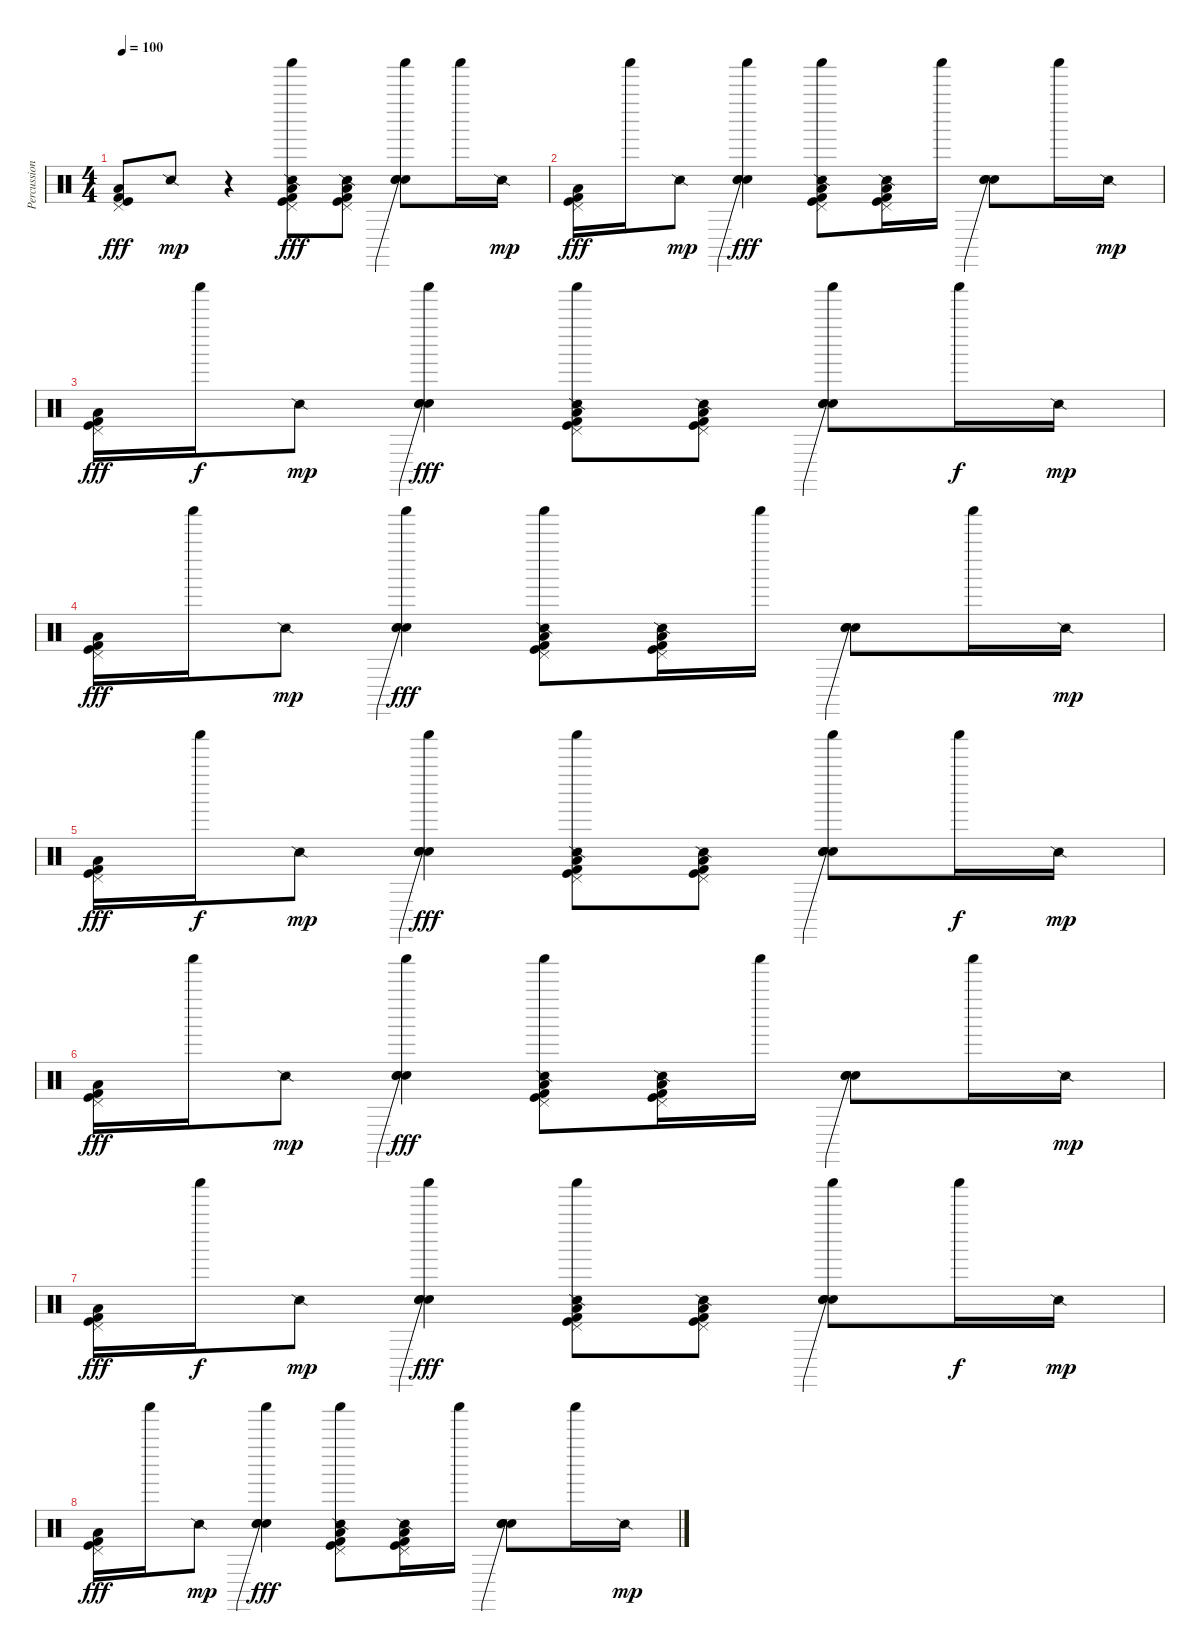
\track ("Percussion" "Percussion") {instrument percussion}
\staff {score}
\articulation defaults
\ts (4 4)
\tempo 100
\clef neutral
\ks c
("Pedal Hi-Hat (hit)" "Low Floor Tom (hit)" "Kick (hit) 2" "Kick (hit)").8{dy fff} "Snare (side stick) 2".8{dy mp} r.4 ("Snare (side stick) 2" "Pedal Hi-Hat (hit)" "Shaker (hit)" "Low Floor Tom (hit)" "Kick (hit) 2" "Kick (hit)").8{dy fff} ("Snare (side stick) 2" "Pedal Hi-Hat (hit)" "Low Floor Tom (hit)" "Kick (hit) 2" "Kick (hit)").8 ("Shaker (hit)" "Electric Snare (hit)" "Hand Clap (hit)" "Hand Clap (hit)"{be (prebend 0 6 60 6)}).8 "Shaker (hit)".16 "Snare (side stick) 2".16{dy mp} |
("Pedal Hi-Hat (hit)" "Low Floor Tom (hit)" "Kick (hit) 2" "Kick (hit)").16{dy fff} "Shaker (hit)".16 "Snare (side stick) 2".8{dy mp} ("Shaker (hit)" "Electric Snare (hit)" "Hand Clap (hit)" "Hand Clap (hit)"{be (prebend 0 6 60 6)}).4{dy fff} ("Snare (side stick) 2" "Pedal Hi-Hat (hit)" "Shaker (hit)" "Low Floor Tom (hit)" "Kick (hit) 2" "Kick (hit)").8 ("Snare (side stick) 2" "Pedal Hi-Hat (hit)" "Low Floor Tom (hit)" "Kick (hit) 2" "Kick (hit)").16 "Shaker (hit)".16 ("Electric Snare (hit)" "Hand Clap (hit)" "Hand Clap (hit)"{be (prebend 0 6 60 6)}).8 "Shaker (hit)".16 "Snare (side stick) 2".16{dy mp} |
("Pedal Hi-Hat (hit)" "Low Floor Tom (hit)" "Kick (hit) 2" "Kick (hit)").16{dy fff} "Shaker (hit)".16{dy f} "Snare (side stick) 2".8{dy mp} ("Shaker (hit)" "Electric Snare (hit)" "Hand Clap (hit)" "Hand Clap (hit)"{be (prebend 0 6 60 6)}).4{dy fff} ("Snare (side stick) 2" "Pedal Hi-Hat (hit)" "Shaker (hit)" "Low Floor Tom (hit)" "Kick (hit) 2" "Kick (hit)").8 ("Snare (side stick) 2" "Pedal Hi-Hat (hit)" "Low Floor Tom (hit)" "Kick (hit) 2" "Kick (hit)").8 ("Shaker (hit)" "Electric Snare (hit)" "Hand Clap (hit)" "Hand Clap (hit)"{be (prebend 0 6 60 6)}).8 "Shaker (hit)".16{dy f} "Snare (side stick) 2".16{dy mp} |
("Pedal Hi-Hat (hit)" "Low Floor Tom (hit)" "Kick (hit) 2" "Kick (hit)").16{dy fff} "Shaker (hit)".16 "Snare (side stick) 2".8{dy mp} ("Shaker (hit)" "Electric Snare (hit)" "Hand Clap (hit)" "Hand Clap (hit)"{be (prebend 0 6 60 6)}).4{dy fff} ("Snare (side stick) 2" "Pedal Hi-Hat (hit)" "Shaker (hit)" "Low Floor Tom (hit)" "Kick (hit) 2" "Kick (hit)").8 ("Snare (side stick) 2" "Pedal Hi-Hat (hit)" "Low Floor Tom (hit)" "Kick (hit) 2" "Kick (hit)").16 "Shaker (hit)".16 ("Electric Snare (hit)" "Hand Clap (hit)" "Hand Clap (hit)"{be (prebend 0 6 60 6)}).8 "Shaker (hit)".16 "Snare (side stick) 2".16{dy mp} |
("Pedal Hi-Hat (hit)" "Low Floor Tom (hit)" "Kick (hit) 2" "Kick (hit)").16{dy fff} "Shaker (hit)".16{dy f} "Snare (side stick) 2".8{dy mp} ("Shaker (hit)" "Electric Snare (hit)" "Hand Clap (hit)" "Hand Clap (hit)"{be (prebend 0 6 60 6)}).4{dy fff} ("Snare (side stick) 2" "Pedal Hi-Hat (hit)" "Shaker (hit)" "Low Floor Tom (hit)" "Kick (hit) 2" "Kick (hit)").8 ("Snare (side stick) 2" "Pedal Hi-Hat (hit)" "Low Floor Tom (hit)" "Kick (hit) 2" "Kick (hit)").8 ("Shaker (hit)" "Electric Snare (hit)" "Hand Clap (hit)" "Hand Clap (hit)"{be (prebend 0 6 60 6)}).8 "Shaker (hit)".16{dy f} "Snare (side stick) 2".16{dy mp} |
("Pedal Hi-Hat (hit)" "Low Floor Tom (hit)" "Kick (hit) 2" "Kick (hit)").16{dy fff} "Shaker (hit)".16 "Snare (side stick) 2".8{dy mp} ("Shaker (hit)" "Electric Snare (hit)" "Hand Clap (hit)" "Hand Clap (hit)"{be (prebend 0 6 60 6)}).4{dy fff} ("Snare (side stick) 2" "Pedal Hi-Hat (hit)" "Shaker (hit)" "Low Floor Tom (hit)" "Kick (hit) 2" "Kick (hit)").8 ("Snare (side stick) 2" "Pedal Hi-Hat (hit)" "Low Floor Tom (hit)" "Kick (hit) 2" "Kick (hit)").16 "Shaker (hit)".16 ("Electric Snare (hit)" "Hand Clap (hit)" "Hand Clap (hit)"{be (prebend 0 6 60 6)}).8 "Shaker (hit)".16 "Snare (side stick) 2".16{dy mp} |
("Pedal Hi-Hat (hit)" "Low Floor Tom (hit)" "Kick (hit) 2" "Kick (hit)").16{dy fff} "Shaker (hit)".16{dy f} "Snare (side stick) 2".8{dy mp} ("Shaker (hit)" "Electric Snare (hit)" "Hand Clap (hit)" "Hand Clap (hit)"{be (prebend 0 6 60 6)}).4{dy fff} ("Snare (side stick) 2" "Pedal Hi-Hat (hit)" "Shaker (hit)" "Low Floor Tom (hit)" "Kick (hit) 2" "Kick (hit)").8 ("Snare (side stick) 2" "Pedal Hi-Hat (hit)" "Low Floor Tom (hit)" "Kick (hit) 2" "Kick (hit)").8 ("Shaker (hit)" "Electric Snare (hit)" "Hand Clap (hit)" "Hand Clap (hit)"{be (prebend 0 6 60 6)}).8 "Shaker (hit)".16{dy f} "Snare (side stick) 2".16{dy mp} |
("Pedal Hi-Hat (hit)" "Low Floor Tom (hit)" "Kick (hit) 2" "Kick (hit)").16{dy fff} "Shaker (hit)".16 "Snare (side stick) 2".8{dy mp} ("Shaker (hit)" "Electric Snare (hit)" "Hand Clap (hit)" "Hand Clap (hit)"{be (prebend 0 6 60 6)}).4{dy fff} ("Snare (side stick) 2" "Pedal Hi-Hat (hit)" "Shaker (hit)" "Low Floor Tom (hit)" "Kick (hit) 2" "Kick (hit)").8 ("Snare (side stick) 2" "Pedal Hi-Hat (hit)" "Low Floor Tom (hit)" "Kick (hit) 2" "Kick (hit)").16 "Shaker (hit)".16 ("Electric Snare (hit)" "Hand Clap (hit)" "Hand Clap (hit)"{be (prebend 0 6 60 6)}).8 "Shaker (hit)".16 "Snare (side stick) 2".16{dy mp}
